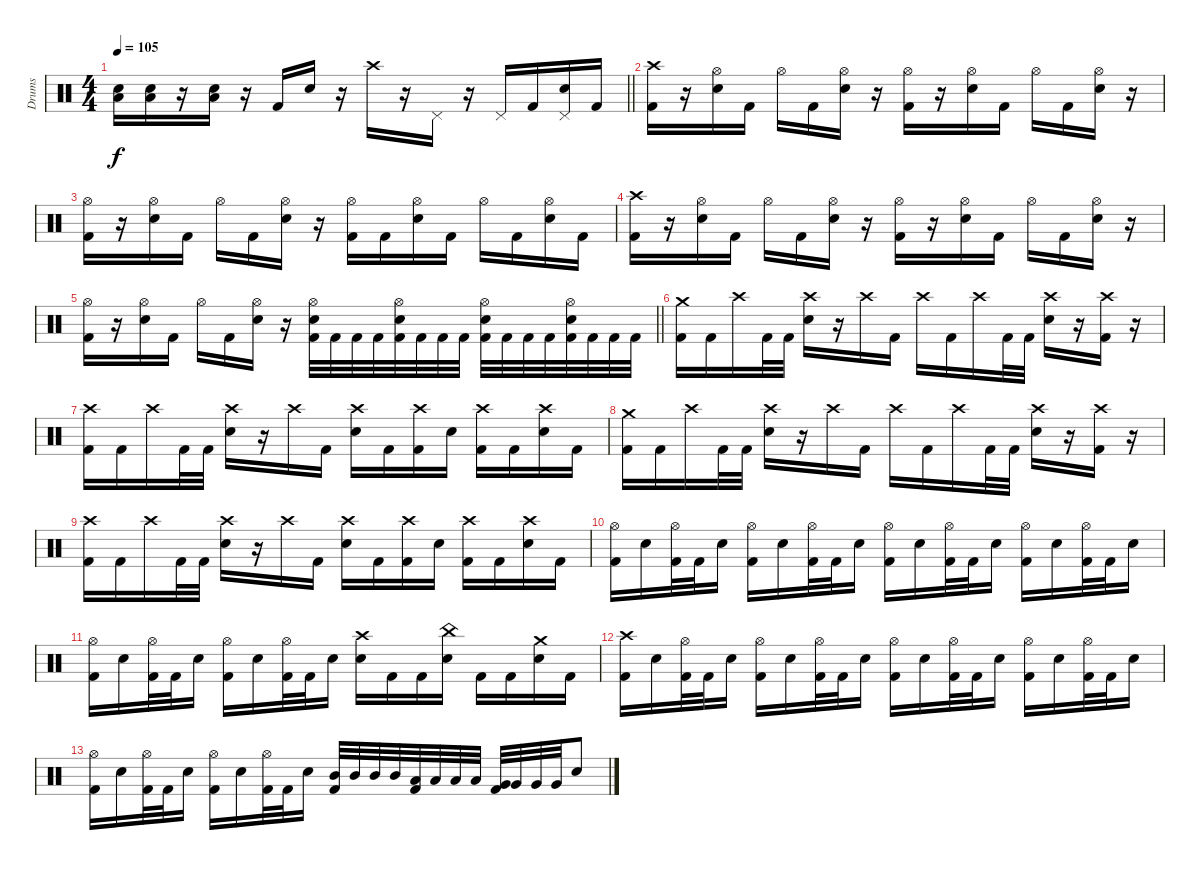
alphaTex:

\track ("Drums" "Drums") {instrument percussion}
\staff
\articulation defaults
\ts (4 4)
\tempo 105
\clef neutral
\barLineRight lightlight
\ks c
("Low Floor Tom (hit)" "Electric Snare (hit)").16{dy f} ("Low Floor Tom (hit)" "Electric Snare (hit)").16 r.16 ("Low Floor Tom (hit)" "Electric Snare (hit)").16 r.16 "Kick (hit) 2".16 "Electric Snare (hit)".16 r.16 "Crash high (hit)".16 r.16 "Pedal Hi-Hat (hit)".16 r.16 "Pedal Hi-Hat (hit)".16 "Kick (hit) 2".16 ("Pedal Hi-Hat (hit)" "Electric Snare (hit)").16 "Kick (hit) 2".16 |
("Crash high (hit)" "Kick (hit) 2").16 r.16 ("Hi-Hat (open)" "Electric Snare (hit)").16 "Kick (hit) 2".16 "Hi-Hat (open)".16 "Kick (hit) 2".16 ("Hi-Hat (open)" "Electric Snare (hit)").16 r.16 ("Hi-Hat (open)" "Kick (hit) 2").16 r.16 ("Hi-Hat (open)" "Electric Snare (hit)").16 "Kick (hit) 2".16 "Hi-Hat (open)".16 "Kick (hit) 2".16 ("Hi-Hat (open)" "Electric Snare (hit)").16 r.16 |
("Hi-Hat (open)" "Kick (hit) 2").16 r.16 ("Hi-Hat (open)" "Electric Snare (hit)").16 "Kick (hit) 2".16 "Hi-Hat (open)".16 "Kick (hit) 2".16 ("Hi-Hat (open)" "Electric Snare (hit)").16 r.16 ("Hi-Hat (open)" "Kick (hit) 2").16 "Kick (hit) 2".16 ("Hi-Hat (open)" "Electric Snare (hit)").16 "Kick (hit) 2".16 "Hi-Hat (open)".16 "Kick (hit) 2".16 ("Hi-Hat (open)" "Electric Snare (hit)").16 "Kick (hit) 2".16 |
("Crash high (hit)" "Kick (hit) 2").16 r.16 ("Hi-Hat (open)" "Electric Snare (hit)").16 "Kick (hit) 2".16 "Hi-Hat (open)".16 "Kick (hit) 2".16 ("Hi-Hat (open)" "Electric Snare (hit)").16 r.16 ("Hi-Hat (open)" "Kick (hit) 2").16 r.16 ("Hi-Hat (open)" "Electric Snare (hit)").16 "Kick (hit) 2".16 "Hi-Hat (open)".16 "Kick (hit) 2".16 ("Hi-Hat (open)" "Electric Snare (hit)").16 r.16 |
\barLineRight lightlight
("Hi-Hat (open)" "Kick (hit) 2").16 r.16 ("Hi-Hat (open)" "Electric Snare (hit)").16 "Kick (hit) 2".16 "Hi-Hat (open)".16 "Kick (hit) 2".16 ("Hi-Hat (open)" "Electric Snare (hit)").16 r.16 ("Hi-Hat (open)" "Electric Snare (hit)" "Kick (hit) 2").32 "Kick (hit) 2".32 "Kick (hit) 2".32 "Kick (hit) 2".32 ("Hi-Hat (open)" "Electric Snare (hit)" "Kick (hit) 2").32 "Kick (hit) 2".32 "Kick (hit) 2".32 "Kick (hit) 2".32 ("Hi-Hat (open)" "Electric Snare (hit)" "Kick (hit) 2").32 "Kick (hit) 2".32 "Kick (hit) 2".32 "Kick (hit) 2".32 ("Hi-Hat (open)" "Electric Snare (hit)" "Kick (hit) 2").32 "Kick (hit) 2".32 "Kick (hit) 2".32 "Kick (hit) 2".32 |
("Crash medium (hit)" "Kick (hit) 2").16 "Kick (hit) 2".16 "Crash high (hit)".16 "Kick (hit) 2".32 "Kick (hit) 2".32 ("Crash high (hit)" "Electric Snare (hit)").16 r.16 "Crash high (hit)".16 "Kick (hit) 2".16 "Crash high (hit)".16 "Kick (hit) 2".16 "Crash high (hit)".16 "Kick (hit) 2".32 "Kick (hit) 2".32 ("Crash high (hit)" "Electric Snare (hit)").16 r.16 ("Crash high (hit)" "Kick (hit) 2").16 r.16 |
("Crash high (hit)" "Kick (hit) 2").16 "Kick (hit) 2".16 "Crash high (hit)".16 "Kick (hit) 2".32 "Kick (hit) 2".32 ("Crash high (hit)" "Electric Snare (hit)").16 r.16 "Crash high (hit)".16 "Kick (hit) 2".16 ("Crash high (hit)" "Electric Snare (hit)").16 "Kick (hit) 2".16 ("Crash high (hit)" "Kick (hit) 2").16 "Electric Snare (hit)".16 ("Crash high (hit)" "Kick (hit) 2").16 "Kick (hit) 2".16 ("Crash high (hit)" "Electric Snare (hit)").16 "Kick (hit) 2".16 |
("Crash medium (hit)" "Kick (hit) 2").16 "Kick (hit) 2".16 "Crash high (hit)".16 "Kick (hit) 2".32 "Kick (hit) 2".32 ("Crash high (hit)" "Electric Snare (hit)").16 r.16 "Crash high (hit)".16 "Kick (hit) 2".16 "Crash high (hit)".16 "Kick (hit) 2".16 "Crash high (hit)".16 "Kick (hit) 2".32 "Kick (hit) 2".32 ("Crash high (hit)" "Electric Snare (hit)").16 r.16 ("Crash high (hit)" "Kick (hit) 2").16 r.16 |
("Crash high (hit)" "Kick (hit) 2").16 "Kick (hit) 2".16 "Crash high (hit)".16 "Kick (hit) 2".32 "Kick (hit) 2".32 ("Crash high (hit)" "Electric Snare (hit)").16 r.16 "Crash high (hit)".16 "Kick (hit) 2".16 ("Crash high (hit)" "Electric Snare (hit)").16 "Kick (hit) 2".16 ("Crash high (hit)" "Kick (hit) 2").16 "Electric Snare (hit)".16 ("Crash high (hit)" "Kick (hit) 2").16 "Kick (hit) 2".16 ("Crash high (hit)" "Electric Snare (hit)").16 "Kick (hit) 2".16 |
("Hi-Hat (open)" "Kick (hit) 2").16 "Electric Snare (hit)".16 ("Hi-Hat (open)" "Kick (hit) 2").32 "Kick (hit) 2".32 "Electric Snare (hit)".16 ("Hi-Hat (open)" "Kick (hit) 2").16 "Electric Snare (hit)".16 ("Hi-Hat (open)" "Kick (hit) 2").32 "Kick (hit) 2".32 "Electric Snare (hit)".16 ("Hi-Hat (open)" "Kick (hit) 2").16 "Electric Snare (hit)".16 ("Hi-Hat (open)" "Kick (hit) 2").32 "Kick (hit) 2".32 "Electric Snare (hit)".16 ("Hi-Hat (open)" "Kick (hit) 2").16 "Electric Snare (hit)".16 ("Hi-Hat (open)" "Kick (hit) 2").32 "Kick (hit) 2".32 "Electric Snare (hit)".16 |
("Hi-Hat (open)" "Kick (hit) 2").16 "Electric Snare (hit)".16 ("Hi-Hat (open)" "Kick (hit) 2").32 "Kick (hit) 2".32 "Electric Snare (hit)".16 ("Hi-Hat (open)" "Kick (hit) 2").16 "Electric Snare (hit)".16 ("Hi-Hat (open)" "Kick (hit) 2").32 "Kick (hit) 2".32 "Electric Snare (hit)".16 ("Crash high (hit)" "Electric Snare (hit)").16 "Kick (hit) 2".16 "Kick (hit) 2".16 ("China (hit)" "Electric Snare (hit)").16 "Kick (hit) 2".16 "Kick (hit) 2".16 ("Crash medium (hit)" "Electric Snare (hit)").16 "Kick (hit) 2".16 |
("Crash high (hit)" "Kick (hit) 2").16 "Electric Snare (hit)".16 ("Hi-Hat (open)" "Kick (hit) 2").32 "Kick (hit) 2".32 "Electric Snare (hit)".16 ("Hi-Hat (open)" "Kick (hit) 2").16 "Electric Snare (hit)".16 ("Hi-Hat (open)" "Kick (hit) 2").32 "Kick (hit) 2".32 "Electric Snare (hit)".16 ("Hi-Hat (open)" "Kick (hit) 2").16 "Electric Snare (hit)".16 ("Hi-Hat (open)" "Kick (hit) 2").32 "Kick (hit) 2".32 "Electric Snare (hit)".16 ("Hi-Hat (open)" "Kick (hit) 2").16 "Electric Snare (hit)".16 ("Hi-Hat (open)" "Kick (hit) 2").32 "Kick (hit) 2".32 "Electric Snare (hit)".16 |
("Hi-Hat (open)" "Kick (hit) 2").16 "Electric Snare (hit)".16 ("Hi-Hat (open)" "Kick (hit) 2").32 "Kick (hit) 2".32 "Electric Snare (hit)".16 ("Hi-Hat (open)" "Kick (hit) 2").16 "Electric Snare (hit)".16 ("Hi-Hat (open)" "Kick (hit) 2").32 "Kick (hit) 2".32 "Electric Snare (hit)".16 ("Mid Tom (hit)" "Kick (hit) 2").32 "Mid Tom (hit)".32 "Mid Tom (hit)".32 "Mid Tom (hit)".32 ("Low Tom (hit)" "Kick (hit) 2").32 "Low Tom (hit)".32 "Low Tom (hit)".32 "Low Tom (hit)".32 ("Very Low Tom (hit)" "Kick (hit) 2").32 "Very Low Tom (hit)".32 "Very Low Tom (hit)".32 "Very Low Tom (hit)".32 "Electric Snare (hit)".8
